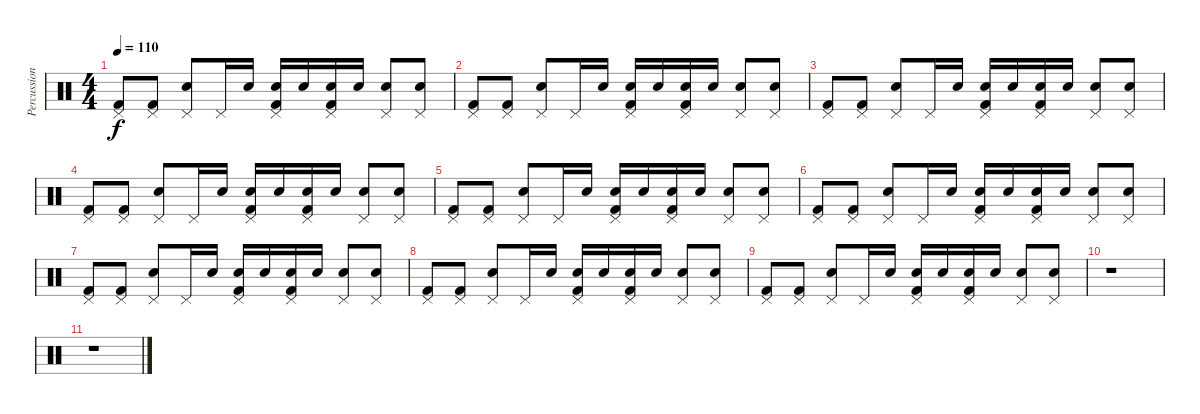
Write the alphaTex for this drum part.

\track ("Percussions" "Percussion") {instrument percussion}
\staff {score}
\articulation defaults
\ts (4 4)
\tempo 110
\clef neutral
\ks c
("Pedal Hi-Hat (hit)" "Kick (hit) 2").8{dy f} ("Pedal Hi-Hat (hit)" "Kick (hit) 2").8 ("Pedal Hi-Hat (hit)" "Electric Snare (hit)").8 "Pedal Hi-Hat (hit)".16 "Electric Snare (hit)".16 ("Pedal Hi-Hat (hit)" "Snare (hit) 2" "Kick (hit) 2").16 "Electric Snare (hit)".16 ("Pedal Hi-Hat (hit)" "Snare (hit) 2" "Kick (hit) 2").16 "Electric Snare (hit)".16 ("Pedal Hi-Hat (hit)" "Electric Snare (hit)").8 ("Pedal Hi-Hat (hit)" "Electric Snare (hit)").8 |
("Pedal Hi-Hat (hit)" "Kick (hit) 2").8 ("Pedal Hi-Hat (hit)" "Kick (hit) 2").8 ("Pedal Hi-Hat (hit)" "Electric Snare (hit)").8 "Pedal Hi-Hat (hit)".16 "Electric Snare (hit)".16 ("Pedal Hi-Hat (hit)" "Snare (hit) 2" "Kick (hit) 2").16 "Electric Snare (hit)".16 ("Pedal Hi-Hat (hit)" "Snare (hit) 2" "Kick (hit) 2").16 "Electric Snare (hit)".16 ("Pedal Hi-Hat (hit)" "Electric Snare (hit)").8 ("Pedal Hi-Hat (hit)" "Electric Snare (hit)").8 |
("Pedal Hi-Hat (hit)" "Kick (hit) 2").8 ("Pedal Hi-Hat (hit)" "Kick (hit) 2").8 ("Pedal Hi-Hat (hit)" "Electric Snare (hit)").8 "Pedal Hi-Hat (hit)".16 "Electric Snare (hit)".16 ("Pedal Hi-Hat (hit)" "Snare (hit) 2" "Kick (hit) 2").16 "Electric Snare (hit)".16 ("Pedal Hi-Hat (hit)" "Snare (hit) 2" "Kick (hit) 2").16 "Electric Snare (hit)".16 ("Pedal Hi-Hat (hit)" "Electric Snare (hit)").8 ("Pedal Hi-Hat (hit)" "Electric Snare (hit)").8 |
("Pedal Hi-Hat (hit)" "Kick (hit) 2").8 ("Pedal Hi-Hat (hit)" "Kick (hit) 2").8 ("Pedal Hi-Hat (hit)" "Electric Snare (hit)").8 "Pedal Hi-Hat (hit)".16 "Electric Snare (hit)".16 ("Pedal Hi-Hat (hit)" "Snare (hit) 2" "Kick (hit) 2").16 "Electric Snare (hit)".16 ("Pedal Hi-Hat (hit)" "Snare (hit) 2" "Kick (hit) 2").16 "Electric Snare (hit)".16 ("Pedal Hi-Hat (hit)" "Electric Snare (hit)").8 ("Pedal Hi-Hat (hit)" "Electric Snare (hit)").8 |
("Pedal Hi-Hat (hit)" "Kick (hit) 2").8 ("Pedal Hi-Hat (hit)" "Kick (hit) 2").8 ("Pedal Hi-Hat (hit)" "Electric Snare (hit)").8 "Pedal Hi-Hat (hit)".16 "Electric Snare (hit)".16 ("Pedal Hi-Hat (hit)" "Snare (hit) 2" "Kick (hit) 2").16 "Electric Snare (hit)".16 ("Pedal Hi-Hat (hit)" "Snare (hit) 2" "Kick (hit) 2").16 "Electric Snare (hit)".16 ("Pedal Hi-Hat (hit)" "Electric Snare (hit)").8 ("Pedal Hi-Hat (hit)" "Electric Snare (hit)").8 |
("Pedal Hi-Hat (hit)" "Kick (hit) 2").8 ("Pedal Hi-Hat (hit)" "Kick (hit) 2").8 ("Pedal Hi-Hat (hit)" "Electric Snare (hit)").8 "Pedal Hi-Hat (hit)".16 "Electric Snare (hit)".16 ("Pedal Hi-Hat (hit)" "Snare (hit) 2" "Kick (hit) 2").16 "Electric Snare (hit)".16 ("Pedal Hi-Hat (hit)" "Snare (hit) 2" "Kick (hit) 2").16 "Electric Snare (hit)".16 ("Pedal Hi-Hat (hit)" "Electric Snare (hit)").8 ("Pedal Hi-Hat (hit)" "Electric Snare (hit)").8 |
("Pedal Hi-Hat (hit)" "Kick (hit) 2").8 ("Pedal Hi-Hat (hit)" "Kick (hit) 2").8 ("Pedal Hi-Hat (hit)" "Electric Snare (hit)").8 "Pedal Hi-Hat (hit)".16 "Electric Snare (hit)".16 ("Pedal Hi-Hat (hit)" "Snare (hit) 2" "Kick (hit) 2").16 "Electric Snare (hit)".16 ("Pedal Hi-Hat (hit)" "Snare (hit) 2" "Kick (hit) 2").16 "Electric Snare (hit)".16 ("Pedal Hi-Hat (hit)" "Electric Snare (hit)").8 ("Pedal Hi-Hat (hit)" "Electric Snare (hit)").8 |
("Pedal Hi-Hat (hit)" "Kick (hit) 2").8 ("Pedal Hi-Hat (hit)" "Kick (hit) 2").8 ("Pedal Hi-Hat (hit)" "Electric Snare (hit)").8 "Pedal Hi-Hat (hit)".16 "Electric Snare (hit)".16 ("Pedal Hi-Hat (hit)" "Snare (hit) 2" "Kick (hit) 2").16 "Electric Snare (hit)".16 ("Pedal Hi-Hat (hit)" "Snare (hit) 2" "Kick (hit) 2").16 "Electric Snare (hit)".16 ("Pedal Hi-Hat (hit)" "Electric Snare (hit)").8 ("Pedal Hi-Hat (hit)" "Electric Snare (hit)").8 |
("Pedal Hi-Hat (hit)" "Kick (hit) 2").8 ("Pedal Hi-Hat (hit)" "Kick (hit) 2").8 ("Pedal Hi-Hat (hit)" "Electric Snare (hit)").8 "Pedal Hi-Hat (hit)".16 "Electric Snare (hit)".16 ("Pedal Hi-Hat (hit)" "Snare (hit) 2" "Kick (hit) 2").16 "Electric Snare (hit)".16 ("Pedal Hi-Hat (hit)" "Snare (hit) 2" "Kick (hit) 2").16 "Electric Snare (hit)".16 ("Pedal Hi-Hat (hit)" "Electric Snare (hit)").8 ("Pedal Hi-Hat (hit)" "Electric Snare (hit)").8 |
r.1 |
r.1
